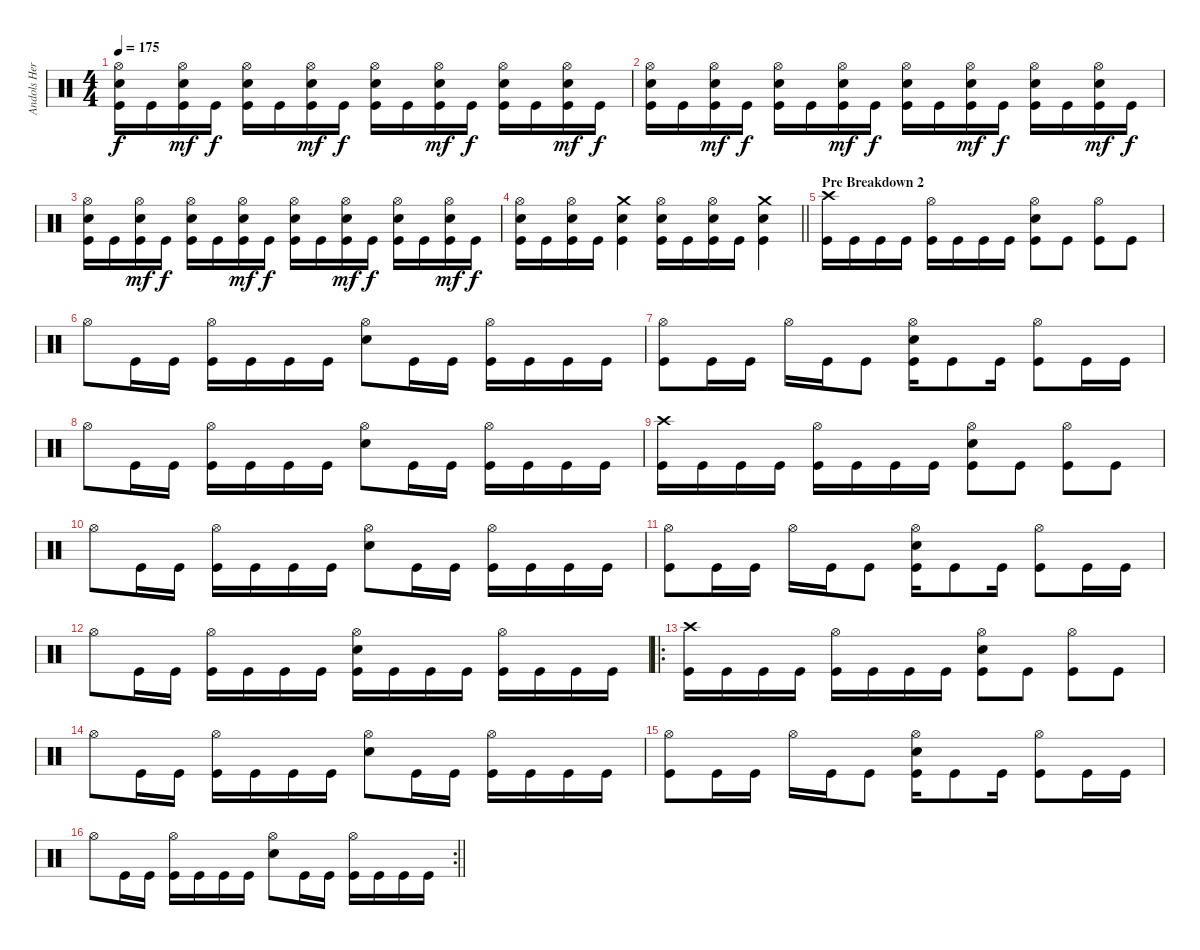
\track ("Andols Herrick" "Andols Her") {instrument percussion}
\staff {score}
\articulation defaults
\ts (4 4)
\tempo 175
\clef neutral
\ks c
("Hi-Hat (open)" "Electric Snare (hit)" "Kick (hit)").16{dy f} "Kick (hit)".16 ("Hi-Hat (open)" "Electric Snare (hit)" "Kick (hit)").16{dy mf} "Kick (hit)".16{dy f} ("Hi-Hat (open)" "Electric Snare (hit)" "Kick (hit)").16 "Kick (hit)".16 ("Hi-Hat (open)" "Electric Snare (hit)" "Kick (hit)").16{dy mf} "Kick (hit)".16{dy f} ("Hi-Hat (open)" "Electric Snare (hit)" "Kick (hit)").16 "Kick (hit)".16 ("Hi-Hat (open)" "Electric Snare (hit)" "Kick (hit)").16{dy mf} "Kick (hit)".16{dy f} ("Hi-Hat (open)" "Electric Snare (hit)" "Kick (hit)").16 "Kick (hit)".16 ("Hi-Hat (open)" "Electric Snare (hit)" "Kick (hit)").16{dy mf} "Kick (hit)".16{dy f} |
("Hi-Hat (open)" "Electric Snare (hit)" "Kick (hit)").16 "Kick (hit)".16 ("Hi-Hat (open)" "Electric Snare (hit)" "Kick (hit)").16{dy mf} "Kick (hit)".16{dy f} ("Hi-Hat (open)" "Electric Snare (hit)" "Kick (hit)").16 "Kick (hit)".16 ("Hi-Hat (open)" "Electric Snare (hit)" "Kick (hit)").16{dy mf} "Kick (hit)".16{dy f} ("Hi-Hat (open)" "Electric Snare (hit)" "Kick (hit)").16 "Kick (hit)".16 ("Hi-Hat (open)" "Electric Snare (hit)" "Kick (hit)").16{dy mf} "Kick (hit)".16{dy f} ("Hi-Hat (open)" "Electric Snare (hit)" "Kick (hit)").16 "Kick (hit)".16 ("Hi-Hat (open)" "Electric Snare (hit)" "Kick (hit)").16{dy mf} "Kick (hit)".16{dy f} |
("Hi-Hat (open)" "Electric Snare (hit)" "Kick (hit)").16 "Kick (hit)".16 ("Hi-Hat (open)" "Electric Snare (hit)" "Kick (hit)").16{dy mf} "Kick (hit)".16{dy f} ("Hi-Hat (open)" "Electric Snare (hit)" "Kick (hit)").16 "Kick (hit)".16 ("Hi-Hat (open)" "Electric Snare (hit)" "Kick (hit)").16{dy mf} "Kick (hit)".16{dy f} ("Hi-Hat (open)" "Electric Snare (hit)" "Kick (hit)").16 "Kick (hit)".16 ("Hi-Hat (open)" "Electric Snare (hit)" "Kick (hit)").16{dy mf} "Kick (hit)".16{dy f} ("Hi-Hat (open)" "Electric Snare (hit)" "Kick (hit)").16 "Kick (hit)".16 ("Hi-Hat (open)" "Electric Snare (hit)" "Kick (hit)").16{dy mf} "Kick (hit)".16{dy f} |
\barLineRight lightlight
("Hi-Hat (open)" "Electric Snare (hit)" "Kick (hit)").16 "Kick (hit)".16 ("Hi-Hat (open)" "Electric Snare (hit)" "Kick (hit)").16 "Kick (hit)".16 ("Crash medium (hit)" "Electric Snare (hit)" "Kick (hit)").4 ("Hi-Hat (open)" "Electric Snare (hit)" "Kick (hit)").16 "Kick (hit)".16 ("Hi-Hat (open)" "Electric Snare (hit)" "Kick (hit)").16 "Kick (hit)".16 ("Crash medium (hit)" "Electric Snare (hit)" "Kick (hit)").4 |
\section ("" "Pre Breakdown 2")
("Crash high (hit)" "Kick (hit)").16 "Kick (hit)".16 "Kick (hit)".16 "Kick (hit)".16 ("Hi-Hat (open)" "Kick (hit)").16 "Kick (hit)".16 "Kick (hit)".16 "Kick (hit)".16 ("Hi-Hat (open)" "Electric Snare (hit)" "Kick (hit)").8 "Kick (hit)".8 ("Hi-Hat (open)" "Kick (hit)").8 "Kick (hit)".8 |
"Hi-Hat (open)".8 "Kick (hit)".16 "Kick (hit)".16 ("Hi-Hat (open)" "Kick (hit)").16 "Kick (hit)".16 "Kick (hit)".16 "Kick (hit)".16 ("Hi-Hat (open)" "Electric Snare (hit)").8 "Kick (hit)".16 "Kick (hit)".16 ("Hi-Hat (open)" "Kick (hit)").16 "Kick (hit)".16 "Kick (hit)".16 "Kick (hit)".16 |
("Hi-Hat (open)" "Kick (hit)").8 "Kick (hit)".16 "Kick (hit)".16 "Hi-Hat (open)".16 "Kick (hit)".16 "Kick (hit)".8 ("Hi-Hat (open)" "Electric Snare (hit)" "Kick (hit)").16 "Kick (hit)".8 "Kick (hit)".16 ("Hi-Hat (open)" "Kick (hit)").8 "Kick (hit)".16 "Kick (hit)".16 |
"Hi-Hat (open)".8 "Kick (hit)".16 "Kick (hit)".16 ("Hi-Hat (open)" "Kick (hit)").16 "Kick (hit)".16 "Kick (hit)".16 "Kick (hit)".16 ("Hi-Hat (open)" "Electric Snare (hit)").8 "Kick (hit)".16 "Kick (hit)".16 ("Hi-Hat (open)" "Kick (hit)").16 "Kick (hit)".16 "Kick (hit)".16 "Kick (hit)".16 |
("Crash high (hit)" "Kick (hit)").16 "Kick (hit)".16 "Kick (hit)".16 "Kick (hit)".16 ("Hi-Hat (open)" "Kick (hit)").16 "Kick (hit)".16 "Kick (hit)".16 "Kick (hit)".16 ("Hi-Hat (open)" "Electric Snare (hit)" "Kick (hit)").8 "Kick (hit)".8 ("Hi-Hat (open)" "Kick (hit)").8 "Kick (hit)".8 |
"Hi-Hat (open)".8 "Kick (hit)".16 "Kick (hit)".16 ("Hi-Hat (open)" "Kick (hit)").16 "Kick (hit)".16 "Kick (hit)".16 "Kick (hit)".16 ("Hi-Hat (open)" "Electric Snare (hit)").8 "Kick (hit)".16 "Kick (hit)".16 ("Hi-Hat (open)" "Kick (hit)").16 "Kick (hit)".16 "Kick (hit)".16 "Kick (hit)".16 |
("Hi-Hat (open)" "Kick (hit)").8 "Kick (hit)".16 "Kick (hit)".16 "Hi-Hat (open)".16 "Kick (hit)".16 "Kick (hit)".8 ("Hi-Hat (open)" "Electric Snare (hit)" "Kick (hit)").16 "Kick (hit)".8 "Kick (hit)".16 ("Hi-Hat (open)" "Kick (hit)").8 "Kick (hit)".16 "Kick (hit)".16 |
"Hi-Hat (open)".8 "Kick (hit)".16 "Kick (hit)".16 ("Hi-Hat (open)" "Kick (hit)").16 "Kick (hit)".16 "Kick (hit)".16 "Kick (hit)".16 ("Hi-Hat (open)" "Electric Snare (hit)" "Kick (hit)").16 "Kick (hit)".16 "Kick (hit)".16 "Kick (hit)".16 ("Hi-Hat (open)" "Kick (hit)").16 "Kick (hit)".16 "Kick (hit)".16 "Kick (hit)".16 |
\ro
("Crash high (hit)" "Kick (hit)").16 "Kick (hit)".16 "Kick (hit)".16 "Kick (hit)".16 ("Hi-Hat (open)" "Kick (hit)").16 "Kick (hit)".16 "Kick (hit)".16 "Kick (hit)".16 ("Hi-Hat (open)" "Electric Snare (hit)" "Kick (hit)").8 "Kick (hit)".8 ("Hi-Hat (open)" "Kick (hit)").8 "Kick (hit)".8 |
"Hi-Hat (open)".8 "Kick (hit)".16 "Kick (hit)".16 ("Hi-Hat (open)" "Kick (hit)").16 "Kick (hit)".16 "Kick (hit)".16 "Kick (hit)".16 ("Hi-Hat (open)" "Electric Snare (hit)").8 "Kick (hit)".16 "Kick (hit)".16 ("Hi-Hat (open)" "Kick (hit)").16 "Kick (hit)".16 "Kick (hit)".16 "Kick (hit)".16 |
("Hi-Hat (open)" "Kick (hit)").8 "Kick (hit)".16 "Kick (hit)".16 "Hi-Hat (open)".16 "Kick (hit)".16 "Kick (hit)".8 ("Hi-Hat (open)" "Electric Snare (hit)" "Kick (hit)").16 "Kick (hit)".8 "Kick (hit)".16 ("Hi-Hat (open)" "Kick (hit)").8 "Kick (hit)".16 "Kick (hit)".16 |
\rc 2
\barLineRight lightlight "Hi-Hat (open)".8 "Kick (hit)".16 "Kick (hit)".16
("Hi-Hat (open)" "Kick (hit)").16 "Kick (hit)".16 "Kick (hit)".16 "Kick (hit)".16 ("Hi-Hat (open)" "Electric Snare (hit)").8 "Kick (hit)".16 "Kick (hit)".16 ("Hi-Hat (open)" "Kick (hit)").16 "Kick (hit)".16 "Kick (hit)".16 "Kick (hit)".16
